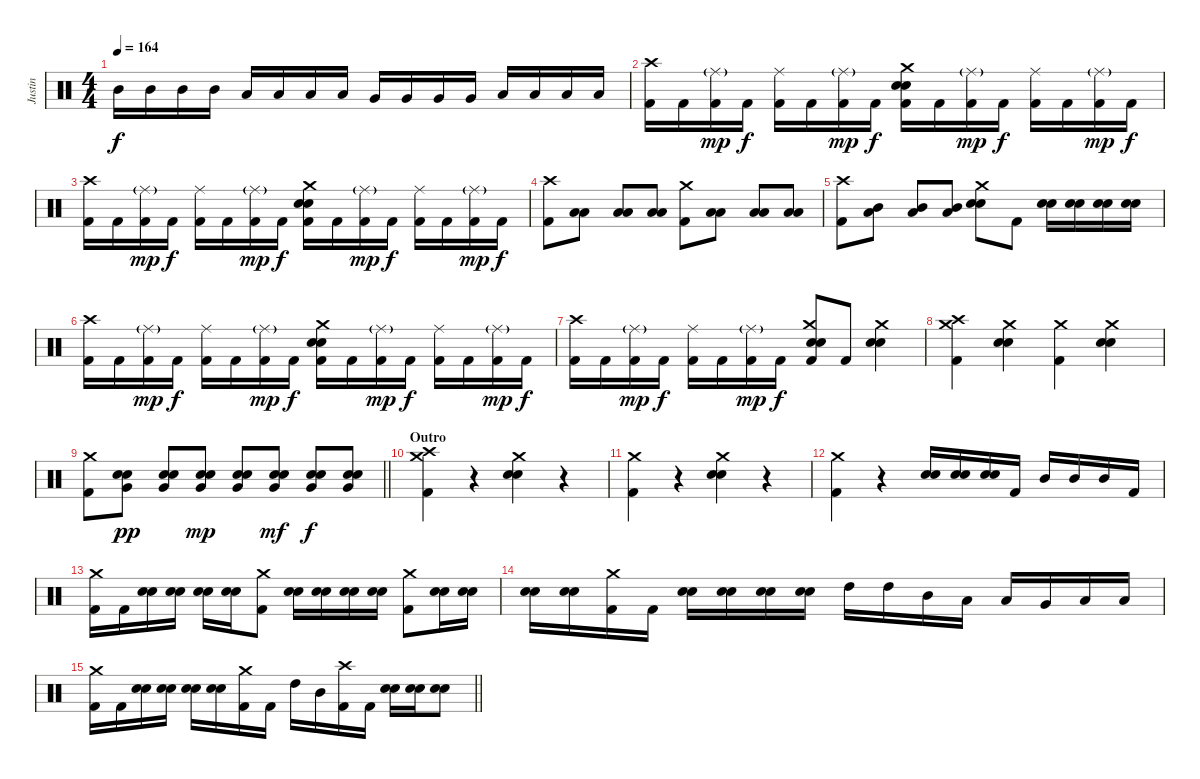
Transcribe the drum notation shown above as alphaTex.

\track ("Justin" "Justin") {instrument percussion}
\staff {score}
\articulation defaults
\ts (4 4)
\tempo 164
\clef neutral
\ks c "Mid Tom (hit)".16{dy f} "Mid Tom (hit)".16 "Mid Tom (hit)".16 "Mid Tom (hit)".16 "Low Tom (hit)".16 "Low Tom (hit)".16 "Low Tom (hit)".16 "Low Tom (hit)".16 "Very Low Tom (hit)".16 "Very Low Tom (hit)".16 "Very Low Tom (hit)".16 "Very Low Tom (hit)".16 "Low Floor Tom (hit)".16 "Low Floor Tom (hit)".16 "Low Floor Tom (hit)".16 "Low Floor Tom (hit)".16
|
("Crash high (hit)" "Kick (hit) 2").16 "Kick (hit) 2".16 ("Ride (middle)"{g} "Kick (hit) 2").16{dy mp} "Kick (hit) 2".16{dy f} ("Ride (middle)" "Kick (hit) 2").16 "Kick (hit) 2".16 ("Ride (middle)"{g} "Kick (hit) 2").16{dy mp} "Kick (hit) 2".16{dy f} ("Crash medium (hit)" "Electric Snare (hit)" "Snare (hit) 2" "Kick (hit) 2").16 "Kick (hit) 2".16 ("Ride (middle)"{g} "Kick (hit) 2").16{dy mp} "Kick (hit) 2".16{dy f} ("Ride (middle)" "Kick (hit) 2").16 "Kick (hit) 2".16 ("Ride (middle)"{g} "Kick (hit) 2").16{dy mp} "Kick (hit) 2".16{dy f} |
("Crash high (hit)" "Kick (hit) 2").16 "Kick (hit) 2".16 ("Ride (middle)"{g} "Kick (hit) 2").16{dy mp} "Kick (hit) 2".16{dy f} ("Ride (middle)" "Kick (hit) 2").16 "Kick (hit) 2".16 ("Ride (middle)"{g} "Kick (hit) 2").16{dy mp} "Kick (hit) 2".16{dy f} ("Crash medium (hit)" "Electric Snare (hit)" "Snare (hit) 2" "Kick (hit) 2").16 "Kick (hit) 2".16 ("Ride (middle)"{g} "Kick (hit) 2").16{dy mp} "Kick (hit) 2".16{dy f} ("Ride (middle)" "Kick (hit) 2").16 "Kick (hit) 2".16 ("Ride (middle)"{g} "Kick (hit) 2").16{dy mp} "Kick (hit) 2".16{dy f} |
("Crash high (hit)" "Kick (hit) 2").8 ("Low Tom (hit)" "Low Floor Tom (hit)").8 ("Low Tom (hit)" "Low Floor Tom (hit)").8 ("Low Tom (hit)" "Low Floor Tom (hit)").8 ("Crash medium (hit)" "Kick (hit) 2").8 ("Low Tom (hit)" "Low Floor Tom (hit)").8 ("Low Tom (hit)" "Low Floor Tom (hit)").8 ("Low Tom (hit)" "Low Floor Tom (hit)").8 |
("Crash high (hit)" "Kick (hit) 2").8 ("Mid Tom (hit)" "Low Floor Tom (hit)").8 ("Mid Tom (hit)" "Low Floor Tom (hit)").8 ("Mid Tom (hit)" "Low Floor Tom (hit)").8 ("Crash medium (hit)" "Electric Snare (hit)" "Snare (hit) 2").8 "Kick (hit) 2".8 ("Electric Snare (hit)" "Snare (hit) 2").16 ("Electric Snare (hit)" "Snare (hit) 2").16 ("Electric Snare (hit)" "Snare (hit) 2").16 ("Electric Snare (hit)" "Snare (hit) 2").16 |
("Crash high (hit)" "Kick (hit) 2").16 "Kick (hit) 2".16 ("Ride (middle)"{g} "Kick (hit) 2").16{dy mp} "Kick (hit) 2".16{dy f} ("Ride (middle)" "Kick (hit) 2").16 "Kick (hit) 2".16 ("Ride (middle)"{g} "Kick (hit) 2").16{dy mp} "Kick (hit) 2".16{dy f} ("Crash medium (hit)" "Electric Snare (hit)" "Snare (hit) 2" "Kick (hit) 2").16 "Kick (hit) 2".16 ("Ride (middle)"{g} "Kick (hit) 2").16{dy mp} "Kick (hit) 2".16{dy f} ("Ride (middle)" "Kick (hit) 2").16 "Kick (hit) 2".16 ("Ride (middle)"{g} "Kick (hit) 2").16{dy mp} "Kick (hit) 2".16{dy f} |
("Crash high (hit)" "Kick (hit) 2").16 "Kick (hit) 2".16 ("Ride (middle)"{g} "Kick (hit) 2").16{dy mp} "Kick (hit) 2".16{dy f} ("Ride (middle)" "Kick (hit) 2").16 "Kick (hit) 2".16 ("Ride (middle)"{g} "Kick (hit) 2").16{dy mp} "Kick (hit) 2".16{dy f} ("Crash medium (hit)" "Electric Snare (hit)" "Snare (hit) 2" "Kick (hit) 2").8 "Kick (hit) 2".8 ("Crash medium (hit)" "Electric Snare (hit)" "Snare (hit) 2").4 |
("Crash high (hit)" "Crash medium (hit)" "Kick (hit) 2").4 ("Crash medium (hit)" "Electric Snare (hit)" "Snare (hit) 2").4 ("Crash medium (hit)" "Kick (hit) 2").4 ("Crash medium (hit)" "Electric Snare (hit)" "Snare (hit) 2").4 |
\barLineRight lightlight
("Crash medium (hit)" "Kick (hit) 2").8 ("Electric Snare (hit)" "Snare (hit) 2" "Very Low Tom (hit)").8{dy pp} ("Electric Snare (hit)" "Snare (hit) 2" "Very Low Tom (hit)").8 ("Electric Snare (hit)" "Snare (hit) 2" "Very Low Tom (hit)").8{dy mp} ("Electric Snare (hit)" "Snare (hit) 2" "Very Low Tom (hit)").8 ("Electric Snare (hit)" "Snare (hit) 2" "Very Low Tom (hit)").8{dy mf} ("Electric Snare (hit)" "Snare (hit) 2" "Very Low Tom (hit)").8{dy f} ("Electric Snare (hit)" "Snare (hit) 2" "Very Low Tom (hit)").8 |
\section ("" "Outro")
("Crash medium (hit)" "Crash high (hit)" "Kick (hit) 2").4 r.4 ("Crash medium (hit)" "Electric Snare (hit)" "Snare (hit) 2").4 r.4 |
("Crash medium (hit)" "Kick (hit) 2").4 r.4 ("Crash medium (hit)" "Electric Snare (hit)" "Snare (hit) 2").4 r.4 |
("Crash medium (hit)" "Kick (hit) 2").4 r.4 ("Electric Snare (hit)" "Snare (hit) 2").16 ("Electric Snare (hit)" "Snare (hit) 2").16 ("Electric Snare (hit)" "Snare (hit) 2").16 "Kick (hit) 2".16 "Mid Tom (hit)".16 "Mid Tom (hit)".16 "Mid Tom (hit)".16 "Kick (hit) 2".16 |
("Crash medium (hit)" "Kick (hit) 2").16 "Kick (hit) 2".16 ("Electric Snare (hit)" "Snare (hit) 2").16 ("Electric Snare (hit)" "Snare (hit) 2").16 ("Electric Snare (hit)" "Snare (hit) 2").16 ("Electric Snare (hit)" "Snare (hit) 2").16 ("Crash medium (hit)" "Kick (hit) 2").8 ("Electric Snare (hit)" "Snare (hit) 2").16 ("Electric Snare (hit)" "Snare (hit) 2").16 ("Electric Snare (hit)" "Snare (hit) 2").16 ("Electric Snare (hit)" "Snare (hit) 2").16 ("Crash medium (hit)" "Kick (hit) 2").8 ("Electric Snare (hit)" "Snare (hit) 2").16 ("Electric Snare (hit)" "Snare (hit) 2").16 |
("Electric Snare (hit)" "Snare (hit) 2").16 ("Electric Snare (hit)" "Snare (hit) 2").16 ("Crash medium (hit)" "Kick (hit) 2").16 "Kick (hit) 2".16 ("Electric Snare (hit)" "Snare (hit) 2").16 ("Electric Snare (hit)" "Snare (hit) 2").16 ("Electric Snare (hit)" "Snare (hit) 2").16 ("Electric Snare (hit)" "Snare (hit) 2").16 "High Tom (hit)".16 "High Tom (hit)".16 "Mid Tom (hit)".16 "Low Tom (hit)".16 "Low Tom (hit)".16 "Very Low Tom (hit)".16 "Low Floor Tom (hit)".16 "Low Floor Tom (hit)".16 |
\barLineRight lightlight
("Crash medium (hit)" "Kick (hit) 2").16 "Kick (hit) 2".16 ("Electric Snare (hit)" "Snare (hit) 2").16 ("Electric Snare (hit)" "Snare (hit) 2").16 ("Electric Snare (hit)" "Snare (hit) 2").16 ("Electric Snare (hit)" "Snare (hit) 2").16 ("Crash medium (hit)" "Kick (hit) 2").16 "Kick (hit) 2".16 "High Tom (hit)".16 "Mid Tom (hit)".16 ("Crash high (hit)" "Kick (hit) 2").16 "Kick (hit) 2".16 ("Electric Snare (hit)" "Snare (hit) 2").16 ("Electric Snare (hit)" "Snare (hit) 2").16 ("Electric Snare (hit)" "Snare (hit) 2").8
